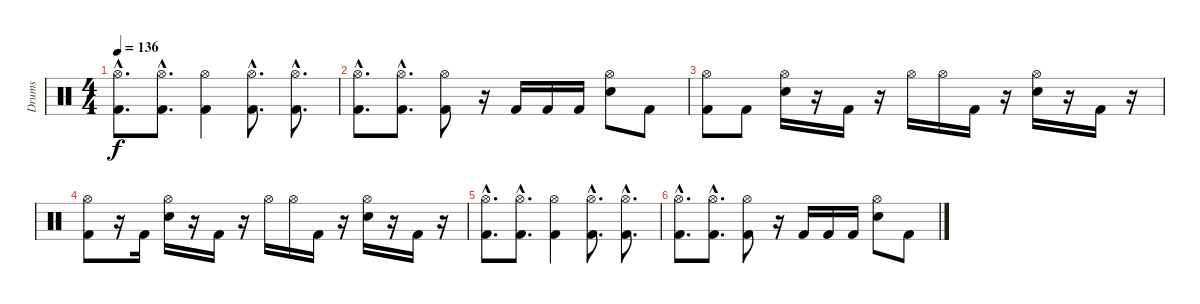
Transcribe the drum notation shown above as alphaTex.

\track ("Drums" "Drums") {instrument percussion}
\staff {score}
\articulation defaults
\ts (4 4)
\tempo 136
\clef neutral
\ks c
("Hi-Hat (open)"{hac} "Kick (hit) 2"{hac}).8{d dy f} ("Hi-Hat (open)"{hac} "Kick (hit) 2"{hac}).8{d} ("Hi-Hat (open)" "Kick (hit) 2").4 ("Hi-Hat (open)"{hac} "Kick (hit) 2"{hac}).8{d} ("Hi-Hat (open)"{hac} "Kick (hit) 2"{hac}).8{d} |
("Hi-Hat (open)"{hac} "Kick (hit) 2"{hac}).8{d} ("Hi-Hat (open)"{hac} "Kick (hit) 2"{hac}).8{d} ("Hi-Hat (open)" "Kick (hit) 2").8 r.16 "Kick (hit) 2".16 "Kick (hit) 2".16 "Kick (hit) 2".16 ("Hi-Hat (open)" "Electric Snare (hit)").8 "Kick (hit) 2".8 |
("Hi-Hat (open)" "Kick (hit) 2").8 "Kick (hit) 2".8 ("Hi-Hat (open)" "Electric Snare (hit)").16 r.16 "Kick (hit) 2".16 r.16 "Hi-Hat (open)".16 "Hi-Hat (open)".16 "Kick (hit) 2".16 r.16 ("Hi-Hat (open)" "Electric Snare (hit)").16 r.16 "Kick (hit) 2".16 r.16 |
("Hi-Hat (open)" "Kick (hit) 2").8 r.16 "Kick (hit) 2".16 ("Hi-Hat (open)" "Electric Snare (hit)").16 r.16 "Kick (hit) 2".16 r.16 "Hi-Hat (open)".16 "Hi-Hat (open)".16 "Kick (hit) 2".16 r.16 ("Hi-Hat (open)" "Electric Snare (hit)").16 r.16 "Kick (hit) 2".16 r.16 |
("Hi-Hat (open)"{hac} "Kick (hit) 2"{hac}).8{d} ("Hi-Hat (open)"{hac} "Kick (hit) 2"{hac}).8{d} ("Hi-Hat (open)" "Kick (hit) 2").4 ("Hi-Hat (open)"{hac} "Kick (hit) 2"{hac}).8{d} ("Hi-Hat (open)"{hac} "Kick (hit) 2"{hac}).8{d} |
("Hi-Hat (open)"{hac} "Kick (hit) 2"{hac}).8{d} ("Hi-Hat (open)"{hac} "Kick (hit) 2"{hac}).8{d} ("Hi-Hat (open)" "Kick (hit) 2").8 r.16 "Kick (hit) 2".16 "Kick (hit) 2".16 "Kick (hit) 2".16 ("Hi-Hat (open)" "Electric Snare (hit)").8 "Kick (hit) 2".8
